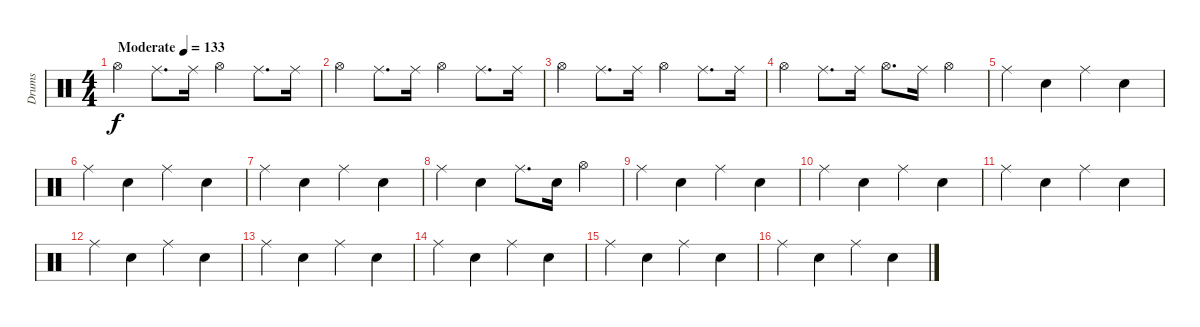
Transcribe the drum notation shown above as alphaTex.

\track ("Drums" "Drums") {instrument percussion}
\staff {score}
\articulation defaults
\ts (4 4)
\tempo (133 "Moderate")
\clef neutral
\ks c "Hi-Hat (open)".4{dy f} "Ride (middle)".8{d} "Ride (middle)".16 "Hi-Hat (open)".4 "Ride (middle)".8{d} "Ride (middle)".16
|
"Hi-Hat (open)".4 "Ride (middle)".8{d} "Ride (middle)".16 "Hi-Hat (open)".4 "Ride (middle)".8{d} "Ride (middle)".16 |
"Hi-Hat (open)".4 "Ride (middle)".8{d} "Ride (middle)".16 "Hi-Hat (open)".4 "Ride (middle)".8{d} "Ride (middle)".16 |
"Hi-Hat (open)".4 "Ride (middle)".8{d} "Ride (middle)".16 "Hi-Hat (open)".8{d} "Ride (middle)".16 "Hi-Hat (open)".4 |
"Ride (middle)".4 "Hand Clap (hit)".4 "Ride (middle)".4 "Hand Clap (hit)".4 |
"Ride (middle)".4 "Hand Clap (hit)".4 "Ride (middle)".4 "Hand Clap (hit)".4 |
"Ride (middle)".4 "Hand Clap (hit)".4 "Ride (middle)".4 "Hand Clap (hit)".4 |
"Ride (middle)".4 "Hand Clap (hit)".4 "Ride (middle)".8{d} "Hand Clap (hit)".16 "Hi-Hat (open)".4 |
"Ride (middle)".4 "Hand Clap (hit)".4 "Ride (middle)".4 "Hand Clap (hit)".4 |
"Ride (middle)".4 "Hand Clap (hit)".4 "Ride (middle)".4 "Hand Clap (hit)".4 |
"Ride (middle)".4 "Hand Clap (hit)".4 "Ride (middle)".4 "Hand Clap (hit)".4 |
"Ride (middle)".4 "Hand Clap (hit)".4 "Ride (middle)".4 "Hand Clap (hit)".4 |
"Ride (middle)".4 "Hand Clap (hit)".4 "Ride (middle)".4 "Hand Clap (hit)".4 |
"Ride (middle)".4 "Hand Clap (hit)".4 "Ride (middle)".4 "Hand Clap (hit)".4 |
"Ride (middle)".4 "Hand Clap (hit)".4 "Ride (middle)".4 "Hand Clap (hit)".4 |
"Ride (middle)".4 "Hand Clap (hit)".4 "Ride (middle)".4 "Hand Clap (hit)".4
